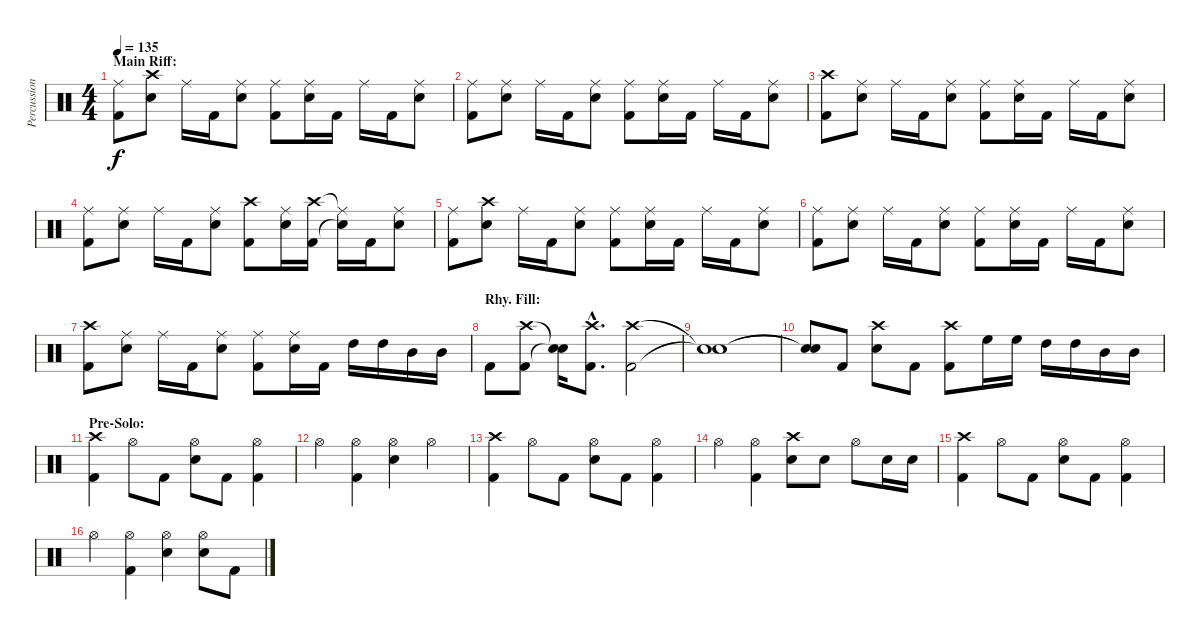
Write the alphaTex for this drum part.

\track ("Percussion" "Percussion") {instrument percussion}
\staff {score}
\articulation defaults
\ts (4 4)
\section ("" "Main Riff:")
\tempo 135
\clef neutral
\ks c
("Ride (middle)" "Kick (hit) 2").8{dy f} ("Crash high (hit)" "Electric Snare (hit)").8 "Ride (middle)".16 "Kick (hit) 2".16 ("Ride (middle)" "Electric Snare (hit)").8 ("Ride (middle)" "Kick (hit) 2").8 ("Ride (middle)" "Electric Snare (hit)").16 "Kick (hit) 2".16 "Ride (middle)".16 "Kick (hit) 2".16 ("Ride (middle)" "Electric Snare (hit)").8 |
("Ride (middle)" "Kick (hit) 2").8 ("Ride (middle)" "Electric Snare (hit)").8 "Ride (middle)".16 "Kick (hit) 2".16 ("Ride (middle)" "Electric Snare (hit)").8 ("Ride (middle)" "Kick (hit) 2").8 ("Ride (middle)" "Electric Snare (hit)").16 "Kick (hit) 2".16 "Ride (middle)".16 "Kick (hit) 2".16 ("Ride (middle)" "Electric Snare (hit)").8 |
("Crash high (hit)" "Kick (hit) 2").8 ("Ride (middle)" "Electric Snare (hit)").8 "Ride (middle)".16 "Kick (hit) 2".16 ("Ride (middle)" "Electric Snare (hit)").8 ("Ride (middle)" "Kick (hit) 2").8 ("Ride (middle)" "Electric Snare (hit)").16 "Kick (hit) 2".16 "Ride (middle)".16 "Kick (hit) 2".16 ("Ride (middle)" "Electric Snare (hit)").8 |
("Ride (middle)" "Kick (hit) 2").8 ("Ride (middle)" "Electric Snare (hit)").8 "Ride (middle)".16 "Kick (hit) 2".16 ("Ride (middle)" "Electric Snare (hit)").8 ("Crash high (hit)" "Kick (hit) 2").8 ("Ride (middle)" "Electric Snare (hit)").16 ("Crash high (hit)" "Kick (hit) 2").16 ("Ride (middle)"{t} "Snare (hit)"{t}).16 "Kick (hit) 2".16 ("Ride (middle)" "Electric Snare (hit)").8 |
("Ride (middle)" "Kick (hit) 2").8 ("Crash high (hit)" "Electric Snare (hit)").8 "Ride (middle)".16 "Kick (hit) 2".16 ("Ride (middle)" "Electric Snare (hit)").8 ("Ride (middle)" "Kick (hit) 2").8 ("Ride (middle)" "Electric Snare (hit)").16 "Kick (hit) 2".16 "Ride (middle)".16 "Kick (hit) 2".16 ("Ride (middle)" "Electric Snare (hit)").8 |
("Ride (middle)" "Kick (hit) 2").8 ("Ride (middle)" "Electric Snare (hit)").8 "Ride (middle)".16 "Kick (hit) 2".16 ("Ride (middle)" "Electric Snare (hit)").8 ("Ride (middle)" "Kick (hit) 2").8 ("Ride (middle)" "Electric Snare (hit)").16 "Kick (hit) 2".16 "Ride (middle)".16 "Kick (hit) 2".16 ("Ride (middle)" "Electric Snare (hit)").8 |
("Crash high (hit)" "Kick (hit) 2").8 ("Ride (middle)" "Electric Snare (hit)").8 "Ride (middle)".16 "Kick (hit) 2".16 ("Ride (middle)" "Electric Snare (hit)").8 ("Ride (middle)" "Kick (hit) 2").8 ("Ride (middle)" "Electric Snare (hit)").16 "Kick (hit) 2".16 "High Tom (hit)".16 "High Tom (hit)".16 "Mid Tom (hit)".16 "Mid Tom (hit)".16 |
\section ("" "Rhy. Fill:")
"Kick (hit) 2".8 ("Crash high (hit)" "Kick (hit) 2").8 ("Snare (hit)"{t} "Snare (hit)"{t}).16 ("Crash high (hit)"{hac} "Kick (hit) 2"{hac}).8{d} ("Crash high (hit)" "Kick (hit) 2").2 |
("Snare (hit)"{t} "Snare (hit)"{t}).1 |
("Snare (hit)"{t} "Snare (hit)"{t}).8 "Kick (hit) 2".8 ("Crash high (hit)" "Electric Snare (hit)").8 "Kick (hit) 2".8 ("Crash high (hit)" "Kick (hit) 2").8 "High Floor Tom (hit)".16 "High Floor Tom (hit)".16 "High Tom (hit)".16 "High Tom (hit)".16 "Mid Tom (hit)".16 "Mid Tom (hit)".16 |
\section ("" "Pre-Solo:")
("Crash high (hit)" "Kick (hit) 2").4 "Hi-Hat (open)".8 "Kick (hit) 2".8 ("Hi-Hat (open)" "Electric Snare (hit)").8 "Kick (hit) 2".8 ("Hi-Hat (open)" "Kick (hit) 2").4 |
"Hi-Hat (open)".4 ("Hi-Hat (open)" "Kick (hit) 2").4 ("Hi-Hat (open)" "Electric Snare (hit)").4 "Hi-Hat (open)".4 |
("Crash high (hit)" "Kick (hit) 2").4 "Hi-Hat (open)".8 "Kick (hit) 2".8 ("Hi-Hat (open)" "Electric Snare (hit)").8 "Kick (hit) 2".8 ("Hi-Hat (open)" "Kick (hit) 2").4 |
"Hi-Hat (open)".4 ("Hi-Hat (open)" "Kick (hit) 2").4 ("Crash high (hit)" "Electric Snare (hit)").8 "Electric Snare (hit)".8 "Hi-Hat (open)".8 "Electric Snare (hit)".16 "Electric Snare (hit)".16 |
("Crash high (hit)" "Kick (hit) 2").4 "Hi-Hat (open)".8 "Kick (hit) 2".8 ("Hi-Hat (open)" "Electric Snare (hit)").8 "Kick (hit) 2".8 ("Hi-Hat (open)" "Kick (hit) 2").4 |
"Hi-Hat (open)".4 ("Hi-Hat (open)" "Kick (hit) 2").4 ("Hi-Hat (open)" "Electric Snare (hit)").4 ("Hi-Hat (open)" "Electric Snare (hit)").8 "Kick (hit) 2".8
